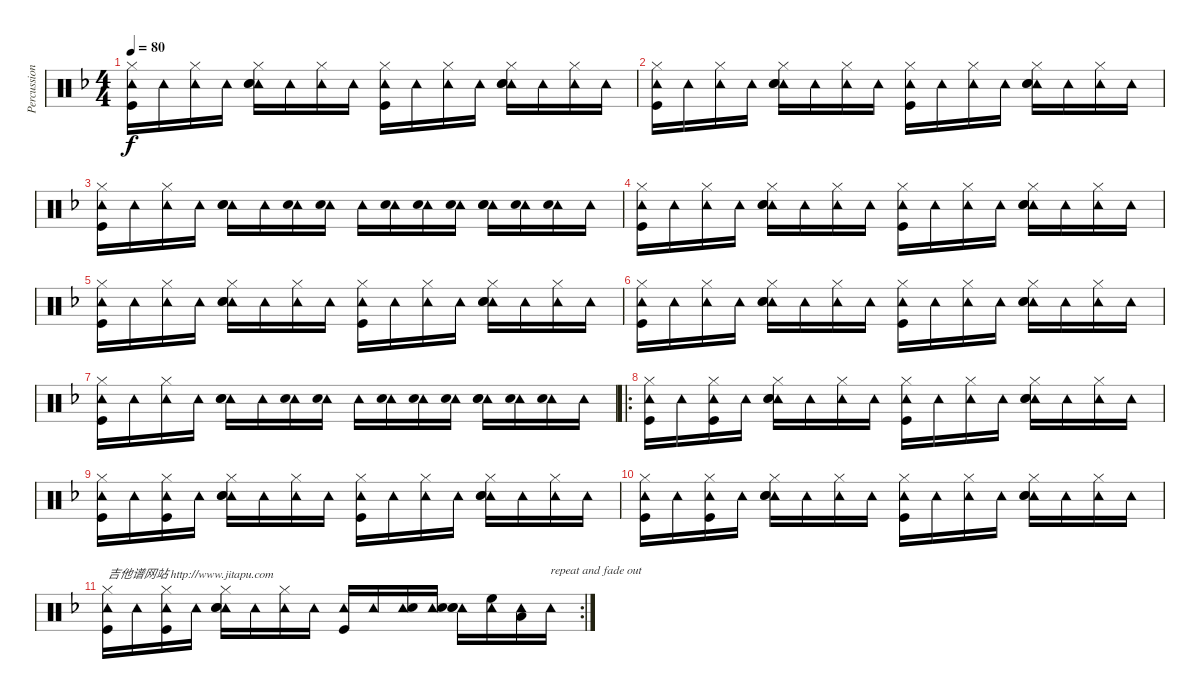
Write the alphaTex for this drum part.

\track ("Percussion" "Percussion") {instrument percussion}
\staff {score}
\articulation defaults
\ts (4 4)
\tempo 80
\clef neutral
\ks f
("Hi-Hat (closed)" "Tambourine (hit)" "Kick (hit)").16{dy f} "Tambourine (hit)".16 ("Hi-Hat (closed)" "Tambourine (hit)").16 "Tambourine (hit)".16 ("Hi-Hat (closed)" "Tambourine (hit)" "Snare (hit) 2" "Hand Clap (hit)").16 "Tambourine (hit)".16 ("Hi-Hat (closed)" "Tambourine (hit)").16 "Tambourine (hit)".16 ("Hi-Hat (closed)" "Tambourine (hit)" "Kick (hit)").16 "Tambourine (hit)".16 ("Hi-Hat (closed)" "Tambourine (hit)").16 "Tambourine (hit)".16 ("Hi-Hat (closed)" "Tambourine (hit)" "Snare (hit) 2" "Hand Clap (hit)").16 "Tambourine (hit)".16 ("Hi-Hat (closed)" "Tambourine (hit)").16 "Tambourine (hit)".16 |
("Hi-Hat (closed)" "Tambourine (hit)" "Kick (hit)").16 "Tambourine (hit)".16 ("Hi-Hat (closed)" "Tambourine (hit)").16 "Tambourine (hit)".16 ("Hi-Hat (closed)" "Tambourine (hit)" "Snare (hit) 2" "Hand Clap (hit)").16 "Tambourine (hit)".16 ("Hi-Hat (closed)" "Tambourine (hit)").16 "Tambourine (hit)".16 ("Hi-Hat (closed)" "Tambourine (hit)" "Kick (hit)").16 "Tambourine (hit)".16 ("Hi-Hat (closed)" "Tambourine (hit)").16 "Tambourine (hit)".16 ("Hi-Hat (closed)" "Tambourine (hit)" "Snare (hit) 2" "Hand Clap (hit)").16 "Tambourine (hit)".16 ("Hi-Hat (closed)" "Tambourine (hit)").16 "Tambourine (hit)".16 |
("Hi-Hat (closed)" "Tambourine (hit)" "Kick (hit)").16 "Tambourine (hit)".16 ("Hi-Hat (closed)" "Tambourine (hit)").16 "Tambourine (hit)".16 ("Tambourine (hit)" "Snare (hit) 2" "Hand Clap (hit)").16 "Tambourine (hit)".16 ("Tambourine (hit)" "Snare (hit) 2").16 ("Tambourine (hit)" "Snare (hit) 2").16 "Tambourine (hit)".16 ("Tambourine (hit)" "Snare (hit) 2").16 ("Tambourine (hit)" "Snare (hit) 2").16 ("Tambourine (hit)" "Snare (hit) 2").16 ("Tambourine (hit)" "Snare (hit) 2" "Hand Clap (hit)").16 ("Tambourine (hit)" "Snare (hit) 2").16 ("Tambourine (hit)" "Snare (hit) 2").16 "Tambourine (hit)".16 |
("Hi-Hat (closed)" "Tambourine (hit)" "Kick (hit)").16 "Tambourine (hit)".16 ("Hi-Hat (closed)" "Tambourine (hit)").16 "Tambourine (hit)".16 ("Hi-Hat (closed)" "Tambourine (hit)" "Snare (hit) 2" "Hand Clap (hit)").16 "Tambourine (hit)".16 ("Hi-Hat (closed)" "Tambourine (hit)").16 "Tambourine (hit)".16 ("Hi-Hat (closed)" "Tambourine (hit)" "Kick (hit)").16 "Tambourine (hit)".16 ("Hi-Hat (closed)" "Tambourine (hit)").16 "Tambourine (hit)".16 ("Hi-Hat (closed)" "Tambourine (hit)" "Snare (hit) 2" "Hand Clap (hit)").16 "Tambourine (hit)".16 ("Hi-Hat (closed)" "Tambourine (hit)").16 "Tambourine (hit)".16 |
("Hi-Hat (closed)" "Tambourine (hit)" "Kick (hit)").16 "Tambourine (hit)".16 ("Hi-Hat (closed)" "Tambourine (hit)").16 "Tambourine (hit)".16 ("Hi-Hat (closed)" "Tambourine (hit)" "Snare (hit) 2" "Hand Clap (hit)").16 "Tambourine (hit)".16 ("Hi-Hat (closed)" "Tambourine (hit)").16 "Tambourine (hit)".16 ("Hi-Hat (closed)" "Tambourine (hit)" "Kick (hit)").16 "Tambourine (hit)".16 ("Hi-Hat (closed)" "Tambourine (hit)").16 "Tambourine (hit)".16 ("Hi-Hat (closed)" "Tambourine (hit)" "Snare (hit) 2" "Hand Clap (hit)").16 "Tambourine (hit)".16 ("Hi-Hat (closed)" "Tambourine (hit)").16 "Tambourine (hit)".16 |
("Hi-Hat (closed)" "Tambourine (hit)" "Kick (hit)").16 "Tambourine (hit)".16 ("Hi-Hat (closed)" "Tambourine (hit)").16 "Tambourine (hit)".16 ("Hi-Hat (closed)" "Tambourine (hit)" "Snare (hit) 2" "Hand Clap (hit)").16 "Tambourine (hit)".16 ("Hi-Hat (closed)" "Tambourine (hit)").16 "Tambourine (hit)".16 ("Hi-Hat (closed)" "Tambourine (hit)" "Kick (hit)").16 "Tambourine (hit)".16 ("Hi-Hat (closed)" "Tambourine (hit)").16 "Tambourine (hit)".16 ("Hi-Hat (closed)" "Tambourine (hit)" "Snare (hit) 2" "Hand Clap (hit)").16 "Tambourine (hit)".16 ("Hi-Hat (closed)" "Tambourine (hit)").16 "Tambourine (hit)".16 |
("Hi-Hat (closed)" "Tambourine (hit)" "Kick (hit)").16 "Tambourine (hit)".16 ("Hi-Hat (closed)" "Tambourine (hit)").16 "Tambourine (hit)".16 ("Tambourine (hit)" "Snare (hit) 2" "Hand Clap (hit)").16 "Tambourine (hit)".16 ("Tambourine (hit)" "Snare (hit) 2").16 ("Tambourine (hit)" "Snare (hit) 2").16 "Tambourine (hit)".16 ("Tambourine (hit)" "Snare (hit) 2").16 ("Tambourine (hit)" "Snare (hit) 2").16 ("Tambourine (hit)" "Snare (hit) 2").16 ("Tambourine (hit)" "Snare (hit) 2" "Hand Clap (hit)").16 ("Tambourine (hit)" "Snare (hit) 2").16 ("Tambourine (hit)" "Snare (hit) 2").16 "Tambourine (hit)".16 |
\ro
("Hi-Hat (closed)" "Tambourine (hit)" "Kick (hit)").16 "Tambourine (hit)".16 ("Hi-Hat (closed)" "Tambourine (hit)" "Kick (hit)").16 "Tambourine (hit)".16 ("Hi-Hat (closed)" "Tambourine (hit)" "Snare (hit) 2" "Hand Clap (hit)").16 "Tambourine (hit)".16 ("Hi-Hat (closed)" "Tambourine (hit)").16 "Tambourine (hit)".16 ("Hi-Hat (closed)" "Tambourine (hit)" "Kick (hit)").16 "Tambourine (hit)".16 ("Hi-Hat (closed)" "Tambourine (hit)").16 "Tambourine (hit)".16 ("Hi-Hat (closed)" "Tambourine (hit)" "Snare (hit) 2" "Hand Clap (hit)").16 "Tambourine (hit)".16 ("Hi-Hat (closed)" "Tambourine (hit)").16 "Tambourine (hit)".16 |
("Hi-Hat (closed)" "Tambourine (hit)" "Kick (hit)").16 "Tambourine (hit)".16 ("Hi-Hat (closed)" "Tambourine (hit)" "Kick (hit)").16 "Tambourine (hit)".16 ("Hi-Hat (closed)" "Tambourine (hit)" "Snare (hit) 2" "Hand Clap (hit)").16 "Tambourine (hit)".16 ("Hi-Hat (closed)" "Tambourine (hit)").16 "Tambourine (hit)".16 ("Hi-Hat (closed)" "Tambourine (hit)" "Kick (hit)").16 "Tambourine (hit)".16 ("Hi-Hat (closed)" "Tambourine (hit)").16 "Tambourine (hit)".16 ("Hi-Hat (closed)" "Tambourine (hit)" "Snare (hit) 2" "Hand Clap (hit)").16 "Tambourine (hit)".16 ("Hi-Hat (closed)" "Tambourine (hit)").16 "Tambourine (hit)".16 |
("Hi-Hat (closed)" "Tambourine (hit)" "Kick (hit)").16 "Tambourine (hit)".16 ("Hi-Hat (closed)" "Tambourine (hit)" "Kick (hit)").16 "Tambourine (hit)".16 ("Hi-Hat (closed)" "Tambourine (hit)" "Snare (hit) 2" "Hand Clap (hit)").16 "Tambourine (hit)".16 ("Hi-Hat (closed)" "Tambourine (hit)").16 "Tambourine (hit)".16 ("Hi-Hat (closed)" "Tambourine (hit)" "Kick (hit)").16 "Tambourine (hit)".16 ("Hi-Hat (closed)" "Tambourine (hit)").16 "Tambourine (hit)".16 ("Hi-Hat (closed)" "Tambourine (hit)" "Snare (hit) 2" "Hand Clap (hit)").16 "Tambourine (hit)".16 ("Hi-Hat (closed)" "Tambourine (hit)").16 "Tambourine (hit)".16 |
\rc 2
("Hi-Hat (closed)" "Tambourine (hit)" "Kick (hit)").16{txt "吉他谱网站 http://www.jitapu.com"} "Tambourine (hit)".16 ("Hi-Hat (closed)" "Tambourine (hit)" "Kick (hit)").16 "Tambourine (hit)".16 ("Hi-Hat (closed)" "Tambourine (hit)" "Snare (hit) 2" "Hand Clap (hit)").16 "Tambourine (hit)".16 ("Hi-Hat (closed)" "Tambourine (hit)").16 "Tambourine (hit)".16 ("Tambourine (hit)" "Kick (hit)").16 "Tambourine (hit)".16 ("Tambourine (hit)" "Snare (hit) 2").16 ("Tambourine (hit)" "Snare (hit) 2").16 ("Tambourine (hit)" "Snare (hit) 2" "Hand Clap (hit)").16 ("Tambourine (hit)" "High Floor Tom (hit)").16 ("Tambourine (hit)" "Low Tom (hit)").16 "Tambourine (hit)".16{txt "repeat and fade out"}
